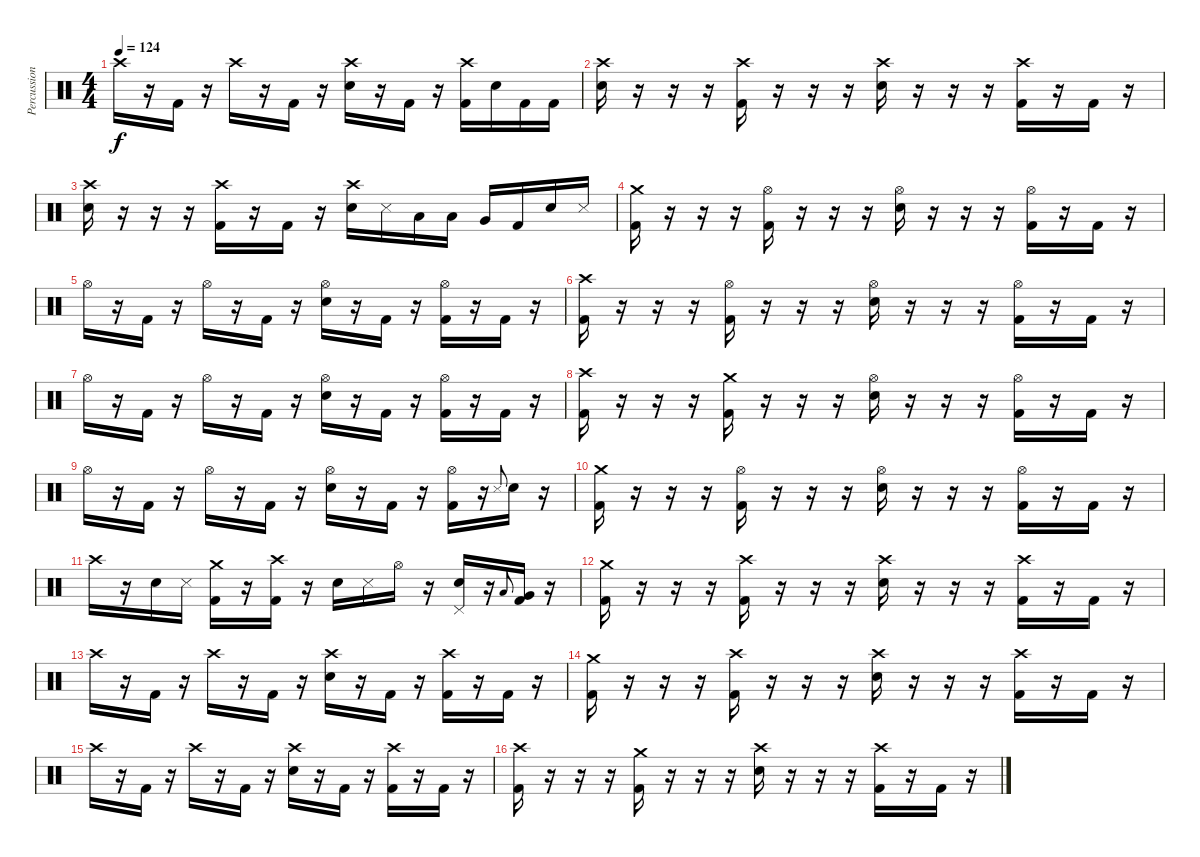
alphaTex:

\track ("Percussion" "Percussion") {instrument percussion}
\staff {score}
\articulation defaults
\ts (4 4)
\tempo 124
\clef neutral
\ks c "Crash high (hit)".16{dy f}
r.16 "Kick (hit) 2".16 r.16 "Crash high (hit)".16 r.16 "Kick (hit) 2".16 r.16 ("Crash high (hit)" "Snare (hit) 2").16 r.16 "Kick (hit) 2".16 r.16 ("Crash high (hit)" "Kick (hit) 2").16 "Snare (hit) 2".16 "Kick (hit) 2".16 "Kick (hit) 2".16 |
("Crash high (hit)" "Snare (hit) 2").16 r.16 r.16 r.16 ("Crash high (hit)" "Kick (hit) 2").16 r.16 r.16 r.16 ("Crash high (hit)" "Snare (hit) 2").16 r.16 r.16 r.16 ("Crash high (hit)" "Kick (hit) 2").16 r.16 "Kick (hit) 2".16 r.16 |
("Crash high (hit)" "Snare (hit) 2").16 r.16 r.16 r.16 ("Crash high (hit)" "Kick (hit) 2").16 r.16 "Kick (hit) 2".16 r.16 ("Crash high (hit)" "Snare (hit) 2").16 "Metronome (hit)".16 "Low Tom (hit)".16 "Low Tom (hit)".16 "Very Low Tom (hit)".16 "Kick (hit) 2".16 "Snare (hit) 2".16 "Metronome (hit)".16 |
("Crash medium (hit)" "Kick (hit) 2").16 r.16 r.16 r.16 ("Hi-Hat (open)" "Kick (hit) 2").16 r.16 r.16 r.16 ("Hi-Hat (open)" "Snare (hit) 2").16 r.16 r.16 r.16 ("Hi-Hat (open)" "Kick (hit) 2").16 r.16 "Kick (hit) 2".16 r.16 |
"Hi-Hat (open)".16 r.16 "Kick (hit) 2".16 r.16 "Hi-Hat (open)".16 r.16 "Kick (hit) 2".16 r.16 ("Hi-Hat (open)" "Snare (hit) 2").16 r.16 "Kick (hit) 2".16 r.16 ("Hi-Hat (open)" "Kick (hit) 2").16 r.16 "Kick (hit) 2".16 r.16 |
("Crash high (hit)" "Kick (hit) 2").16 r.16 r.16 r.16 ("Hi-Hat (open)" "Kick (hit) 2").16 r.16 r.16 r.16 ("Hi-Hat (open)" "Snare (hit) 2").16 r.16 r.16 r.16 ("Hi-Hat (open)" "Kick (hit) 2").16 r.16 "Kick (hit) 2".16 r.16 |
"Hi-Hat (open)".16 r.16 "Kick (hit) 2".16 r.16 "Hi-Hat (open)".16 r.16 "Kick (hit) 2".16 r.16 ("Hi-Hat (open)" "Snare (hit) 2").16 r.16 "Kick (hit) 2".16 r.16 ("Hi-Hat (open)" "Kick (hit) 2").16 r.16 "Kick (hit) 2".16 r.16 |
("Crash high (hit)" "Kick (hit) 2").16 r.16 r.16 r.16 ("Crash medium (hit)" "Kick (hit) 2").16 r.16 r.16 r.16 ("Hi-Hat (open)" "Snare (hit) 2").16 r.16 r.16 r.16 ("Hi-Hat (open)" "Kick (hit) 2").16 r.16 "Kick (hit) 2".16 r.16 |
"Hi-Hat (open)".16 r.16 "Kick (hit) 2".16 r.16 "Hi-Hat (open)".16 r.16 "Kick (hit) 2".16 r.16 ("Hi-Hat (open)" "Snare (hit) 2").16 r.16 "Kick (hit) 2".16 r.16 ("Hi-Hat (open)" "Kick (hit) 2").16 r.16 "Metronome (hit)".8{gr onbeat} "Snare (hit) 2".16 r.16 |
("Crash medium (hit)" "Kick (hit) 2").16 r.16 r.16 r.16 ("Hi-Hat (open)" "Kick (hit) 2").16 r.16 r.16 r.16 ("Hi-Hat (open)" "Snare (hit) 2").16 r.16 r.16 r.16 ("Hi-Hat (open)" "Kick (hit) 2").16 r.16 "Kick (hit) 2".16 r.16 |
"Crash high (hit)".16 r.16 "Snare (hit) 2".16 "Metronome (hit)".16 ("Crash medium (hit)" "Kick (hit) 2").16 r.16 ("Crash high (hit)" "Kick (hit) 2").16 r.16 "Snare (hit) 2".16 "Metronome (hit)".16 "Hi-Hat (open)".16 r.16 ("Pedal Hi-Hat (hit)" "Snare (hit) 2").16 r.16 "Low Tom (hit)".8{gr onbeat} ("Very Low Tom (hit)" "Kick (hit) 2").16 r.16 |
("Crash medium (hit)" "Kick (hit) 2").16 r.16 r.16 r.16 ("Crash high (hit)" "Kick (hit) 2").16 r.16 r.16 r.16 ("Crash high (hit)" "Snare (hit) 2").16 r.16 r.16 r.16 ("Crash high (hit)" "Kick (hit) 2").16 r.16 "Kick (hit) 2".16 r.16 |
"Crash high (hit)".16 r.16 "Kick (hit) 2".16 r.16 "Crash high (hit)".16 r.16 "Kick (hit) 2".16 r.16 ("Crash high (hit)" "Snare (hit) 2").16 r.16 "Kick (hit) 2".16 r.16 ("Crash high (hit)" "Kick (hit) 2").16 r.16 "Kick (hit) 2".16 r.16 |
("Crash medium (hit)" "Kick (hit) 2").16 r.16 r.16 r.16 ("Crash high (hit)" "Kick (hit) 2").16 r.16 r.16 r.16 ("Crash high (hit)" "Snare (hit) 2").16 r.16 r.16 r.16 ("Crash high (hit)" "Kick (hit) 2").16 r.16 "Kick (hit) 2".16 r.16 |
"Crash high (hit)".16 r.16 "Kick (hit) 2".16 r.16 "Crash high (hit)".16 r.16 "Kick (hit) 2".16 r.16 ("Crash high (hit)" "Snare (hit) 2").16 r.16 "Kick (hit) 2".16 r.16 ("Crash high (hit)" "Kick (hit) 2").16 r.16 "Kick (hit) 2".16 r.16 |
("Crash high (hit)" "Kick (hit) 2").16 r.16 r.16 r.16 ("Crash medium (hit)" "Kick (hit) 2").16 r.16 r.16 r.16 ("Crash high (hit)" "Snare (hit) 2").16 r.16 r.16 r.16 ("Crash high (hit)" "Kick (hit) 2").16 r.16 "Kick (hit) 2".16 r.16
